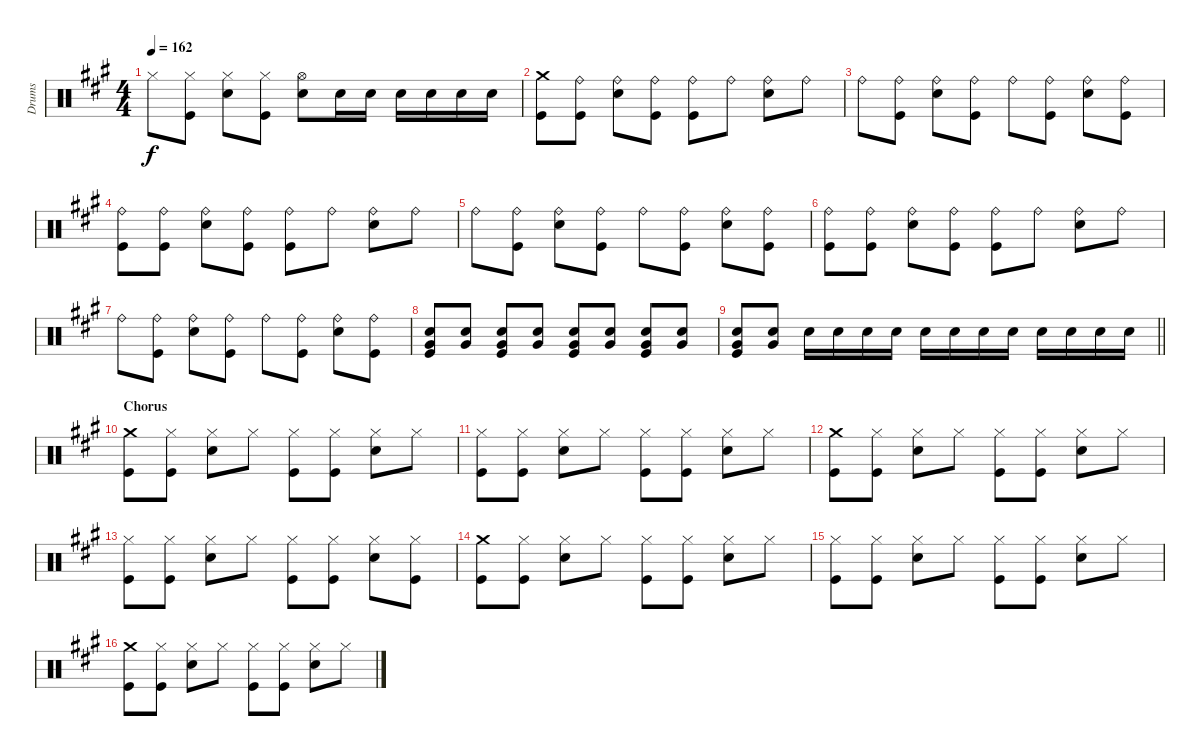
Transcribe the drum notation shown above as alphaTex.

\track ("Drums" "Drums") {instrument percussion}
\staff {score}
\articulation defaults
\ts (4 4)
\tempo 162
\clef neutral
\ks a "Hi-Hat (closed)".8{dy f}
("Kick (hit)" "Hi-Hat (closed)").8 ("Hi-Hat (closed)" "Snare (hit) 2").8 ("Kick (hit)" "Hi-Hat (closed)").8 ("Snare (hit) 2" "Hi-Hat (open)").8 "Snare (hit) 2".16 "Snare (hit) 2".16 "Snare (hit) 2".16 "Snare (hit) 2".16 "Snare (hit) 2".16 "Snare (hit) 2".16 |
("Crash medium (hit)" "Kick (hit)").8 ("Ride (bell)" "Kick (hit)").8 ("Ride (bell)" "Snare (hit) 2").8 ("Ride (bell)" "Kick (hit)").8 ("Ride (bell)" "Kick (hit)").8 "Ride (bell)".8 ("Ride (bell)" "Snare (hit) 2").8 "Ride (bell)".8 |
"Ride (bell)".8 ("Ride (bell)" "Kick (hit)").8 ("Ride (bell)" "Snare (hit) 2").8 ("Ride (bell)" "Kick (hit)").8 "Ride (bell)".8 ("Ride (bell)" "Kick (hit)").8 ("Ride (bell)" "Snare (hit) 2").8 ("Ride (bell)" "Kick (hit)").8 |
("Kick (hit)" "Ride (bell)").8 ("Ride (bell)" "Kick (hit)").8 ("Ride (bell)" "Snare (hit) 2").8 ("Ride (bell)" "Kick (hit)").8 ("Ride (bell)" "Kick (hit)").8 "Ride (bell)".8 ("Ride (bell)" "Snare (hit) 2").8 "Ride (bell)".8 |
"Ride (bell)".8 ("Ride (bell)" "Kick (hit)").8 ("Ride (bell)" "Snare (hit) 2").8 ("Ride (bell)" "Kick (hit)").8 "Ride (bell)".8 ("Ride (bell)" "Kick (hit)").8 ("Ride (bell)" "Snare (hit) 2").8 ("Ride (bell)" "Kick (hit)").8 |
("Kick (hit)" "Ride (bell)").8 ("Ride (bell)" "Kick (hit)").8 ("Ride (bell)" "Snare (hit) 2").8 ("Ride (bell)" "Kick (hit)").8 ("Ride (bell)" "Kick (hit)").8 "Ride (bell)".8 ("Ride (bell)" "Snare (hit) 2").8 "Ride (bell)".8 |
"Ride (bell)".8 ("Ride (bell)" "Kick (hit)").8 ("Ride (bell)" "Snare (hit) 2").8 ("Ride (bell)" "Kick (hit)").8 "Ride (bell)".8 ("Ride (bell)" "Kick (hit)").8 ("Ride (bell)" "Snare (hit) 2").8 ("Ride (bell)" "Kick (hit)").8 |
("Kick (hit)" "Very Low Tom (hit)" "Snare (hit) 2").8 ("Snare (hit) 2" "Very Low Tom (hit)").8 ("Kick (hit)" "Very Low Tom (hit)" "Snare (hit) 2").8 ("Snare (hit) 2" "Very Low Tom (hit)").8 ("Kick (hit)" "Very Low Tom (hit)" "Snare (hit) 2").8 ("Snare (hit) 2" "Very Low Tom (hit)").8 ("Kick (hit)" "Very Low Tom (hit)" "Snare (hit) 2").8 ("Snare (hit) 2" "Very Low Tom (hit)").8 |
\barLineRight lightlight
("Kick (hit)" "Very Low Tom (hit)" "Snare (hit) 2").8 ("Snare (hit) 2" "Very Low Tom (hit)").8 "Snare (hit) 2".16 "Snare (hit) 2".16 "Snare (hit) 2".16 "Snare (hit) 2".16 "Snare (hit) 2".16 "Snare (hit) 2".16 "Snare (hit) 2".16 "Snare (hit) 2".16 "Snare (hit) 2".16 "Snare (hit) 2".16 "Snare (hit) 2".16 "Snare (hit) 2".16 |
\section ("" "Chorus")
("Kick (hit)" "Crash medium (hit)").8 ("Kick (hit)" "Hi-Hat (closed)").8 ("Snare (hit) 2" "Hi-Hat (closed)").8 "Hi-Hat (closed)".8 ("Kick (hit)" "Hi-Hat (closed)").8 ("Kick (hit)" "Hi-Hat (closed)").8 ("Snare (hit) 2" "Hi-Hat (closed)").8 "Hi-Hat (closed)".8 |
("Kick (hit)" "Hi-Hat (closed)").8 ("Kick (hit)" "Hi-Hat (closed)").8 ("Snare (hit) 2" "Hi-Hat (closed)").8 "Hi-Hat (closed)".8 ("Kick (hit)" "Hi-Hat (closed)").8 ("Kick (hit)" "Hi-Hat (closed)").8 ("Snare (hit) 2" "Hi-Hat (closed)").8 "Hi-Hat (closed)".8 |
("Kick (hit)" "Crash medium (hit)").8 ("Kick (hit)" "Hi-Hat (closed)").8 ("Snare (hit) 2" "Hi-Hat (closed)").8 "Hi-Hat (closed)".8 ("Kick (hit)" "Hi-Hat (closed)").8 ("Kick (hit)" "Hi-Hat (closed)").8 ("Snare (hit) 2" "Hi-Hat (closed)").8 "Hi-Hat (closed)".8 |
("Kick (hit)" "Hi-Hat (closed)").8 ("Kick (hit)" "Hi-Hat (closed)").8 ("Snare (hit) 2" "Hi-Hat (closed)").8 "Hi-Hat (closed)".8 ("Kick (hit)" "Hi-Hat (closed)").8 ("Kick (hit)" "Hi-Hat (closed)").8 ("Snare (hit) 2" "Hi-Hat (closed)").8 ("Hi-Hat (closed)" "Kick (hit)").8 |
("Kick (hit)" "Crash medium (hit)").8 ("Kick (hit)" "Hi-Hat (closed)").8 ("Snare (hit) 2" "Hi-Hat (closed)").8 "Hi-Hat (closed)".8 ("Kick (hit)" "Hi-Hat (closed)").8 ("Kick (hit)" "Hi-Hat (closed)").8 ("Snare (hit) 2" "Hi-Hat (closed)").8 "Hi-Hat (closed)".8 |
("Kick (hit)" "Hi-Hat (closed)").8 ("Kick (hit)" "Hi-Hat (closed)").8 ("Snare (hit) 2" "Hi-Hat (closed)").8 "Hi-Hat (closed)".8 ("Kick (hit)" "Hi-Hat (closed)").8 ("Kick (hit)" "Hi-Hat (closed)").8 ("Snare (hit) 2" "Hi-Hat (closed)").8 "Hi-Hat (closed)".8 |
("Kick (hit)" "Crash medium (hit)").8 ("Kick (hit)" "Hi-Hat (closed)").8 ("Snare (hit) 2" "Hi-Hat (closed)").8 "Hi-Hat (closed)".8 ("Kick (hit)" "Hi-Hat (closed)").8 ("Kick (hit)" "Hi-Hat (closed)").8 ("Snare (hit) 2" "Hi-Hat (closed)").8 "Hi-Hat (closed)".8
